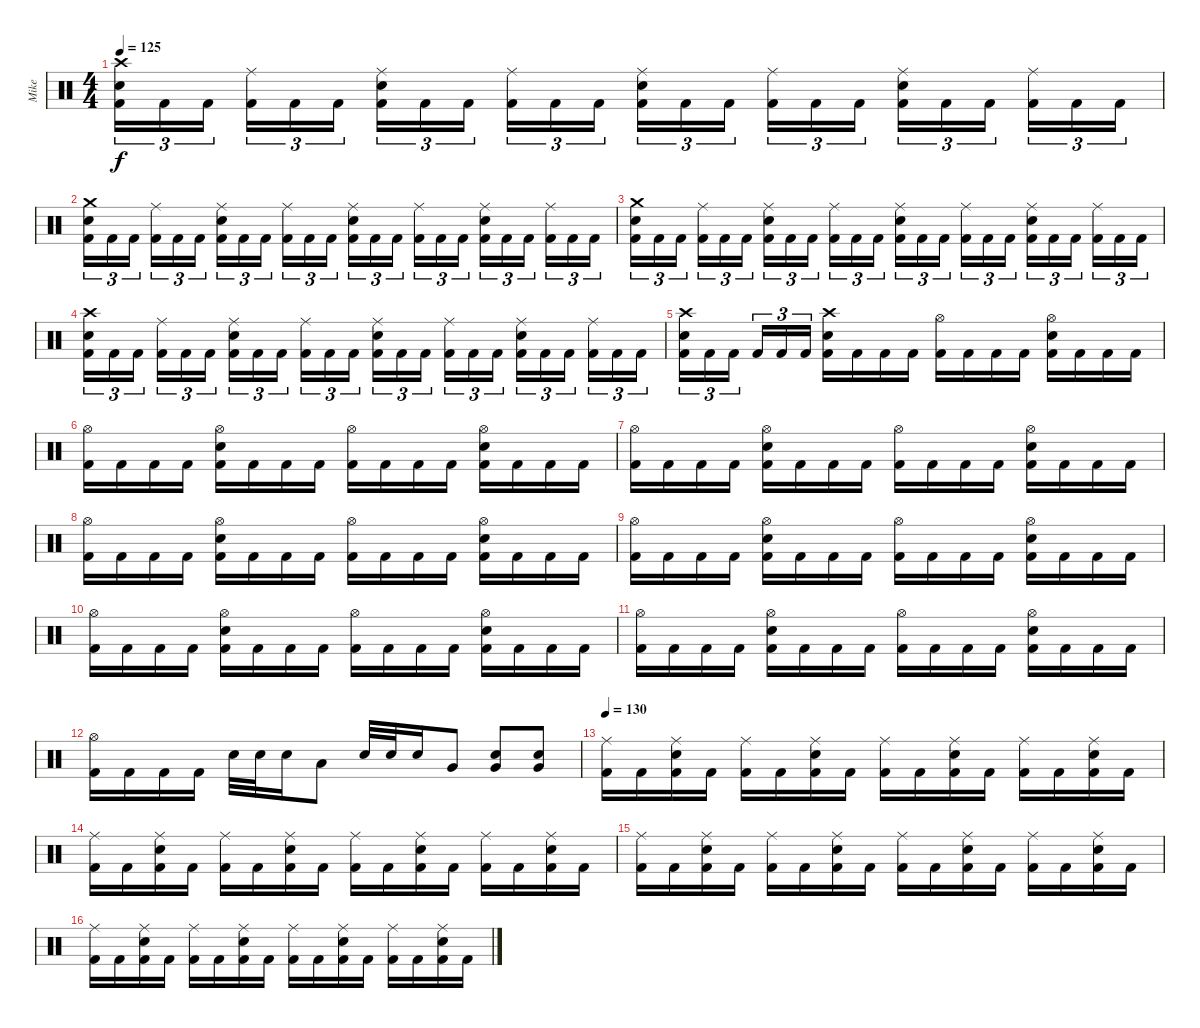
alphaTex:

\track ("Mike" "Mike") {instrument percussion}
\staff {score}
\articulation defaults
\ts (4 4)
\tempo 125
\clef neutral
\ks c
("Kick (hit) 2" "Electric Snare (hit)" "Crash high (hit)").16{tu (3 2) dy f} "Kick (hit) 2".16{tu (3 2)} "Kick (hit) 2".16{tu (3 2) beam splitsecondary} ("Kick (hit) 2" "Ride (middle)").16{tu (3 2)} "Kick (hit) 2".16{tu (3 2)} "Kick (hit) 2".16{tu (3 2)} ("Kick (hit) 2" "Electric Snare (hit)" "Ride (middle)").16{tu (3 2)} "Kick (hit) 2".16{tu (3 2)} "Kick (hit) 2".16{tu (3 2) beam splitsecondary} ("Kick (hit) 2" "Ride (middle)").16{tu (3 2)} "Kick (hit) 2".16{tu (3 2)} "Kick (hit) 2".16{tu (3 2)} ("Kick (hit) 2" "Electric Snare (hit)" "Ride (middle)").16{tu (3 2)} "Kick (hit) 2".16{tu (3 2)} "Kick (hit) 2".16{tu (3 2) beam splitsecondary} ("Kick (hit) 2" "Ride (middle)").16{tu (3 2)} "Kick (hit) 2".16{tu (3 2)} "Kick (hit) 2".16{tu (3 2)} ("Kick (hit) 2" "Electric Snare (hit)" "Ride (middle)").16{tu (3 2)} "Kick (hit) 2".16{tu (3 2)} "Kick (hit) 2".16{tu (3 2) beam splitsecondary} ("Kick (hit) 2" "Ride (middle)").16{tu (3 2)} "Kick (hit) 2".16{tu (3 2)} "Kick (hit) 2".16{tu (3 2)} |
("Kick (hit) 2" "Electric Snare (hit)" "Crash medium (hit)").16{tu (3 2)} "Kick (hit) 2".16{tu (3 2)} "Kick (hit) 2".16{tu (3 2) beam splitsecondary} ("Kick (hit) 2" "Ride (middle)").16{tu (3 2)} "Kick (hit) 2".16{tu (3 2)} "Kick (hit) 2".16{tu (3 2)} ("Kick (hit) 2" "Electric Snare (hit)" "Ride (middle)").16{tu (3 2)} "Kick (hit) 2".16{tu (3 2)} "Kick (hit) 2".16{tu (3 2) beam splitsecondary} ("Kick (hit) 2" "Ride (middle)").16{tu (3 2)} "Kick (hit) 2".16{tu (3 2)} "Kick (hit) 2".16{tu (3 2)} ("Kick (hit) 2" "Electric Snare (hit)" "Ride (middle)").16{tu (3 2)} "Kick (hit) 2".16{tu (3 2)} "Kick (hit) 2".16{tu (3 2) beam splitsecondary} ("Kick (hit) 2" "Ride (middle)").16{tu (3 2)} "Kick (hit) 2".16{tu (3 2)} "Kick (hit) 2".16{tu (3 2)} ("Kick (hit) 2" "Electric Snare (hit)" "Ride (middle)").16{tu (3 2)} "Kick (hit) 2".16{tu (3 2)} "Kick (hit) 2".16{tu (3 2) beam splitsecondary} ("Kick (hit) 2" "Ride (middle)").16{tu (3 2)} "Kick (hit) 2".16{tu (3 2)} "Kick (hit) 2".16{tu (3 2)} |
("Kick (hit) 2" "Electric Snare (hit)" "Crash medium (hit)").16{tu (3 2)} "Kick (hit) 2".16{tu (3 2)} "Kick (hit) 2".16{tu (3 2) beam splitsecondary} ("Kick (hit) 2" "Ride (middle)").16{tu (3 2)} "Kick (hit) 2".16{tu (3 2)} "Kick (hit) 2".16{tu (3 2)} ("Kick (hit) 2" "Electric Snare (hit)" "Ride (middle)").16{tu (3 2)} "Kick (hit) 2".16{tu (3 2)} "Kick (hit) 2".16{tu (3 2) beam splitsecondary} ("Kick (hit) 2" "Ride (middle)").16{tu (3 2)} "Kick (hit) 2".16{tu (3 2)} "Kick (hit) 2".16{tu (3 2)} ("Kick (hit) 2" "Electric Snare (hit)" "Ride (middle)").16{tu (3 2)} "Kick (hit) 2".16{tu (3 2)} "Kick (hit) 2".16{tu (3 2) beam splitsecondary} ("Kick (hit) 2" "Ride (middle)").16{tu (3 2)} "Kick (hit) 2".16{tu (3 2)} "Kick (hit) 2".16{tu (3 2)} ("Kick (hit) 2" "Electric Snare (hit)" "Ride (middle)").16{tu (3 2)} "Kick (hit) 2".16{tu (3 2)} "Kick (hit) 2".16{tu (3 2) beam splitsecondary} ("Kick (hit) 2" "Ride (middle)").16{tu (3 2)} "Kick (hit) 2".16{tu (3 2)} "Kick (hit) 2".16{tu (3 2)} |
("Kick (hit) 2" "Electric Snare (hit)" "Crash high (hit)").16{tu (3 2)} "Kick (hit) 2".16{tu (3 2)} "Kick (hit) 2".16{tu (3 2) beam splitsecondary} ("Kick (hit) 2" "Ride (middle)").16{tu (3 2)} "Kick (hit) 2".16{tu (3 2)} "Kick (hit) 2".16{tu (3 2)} ("Kick (hit) 2" "Electric Snare (hit)" "Ride (middle)").16{tu (3 2)} "Kick (hit) 2".16{tu (3 2)} "Kick (hit) 2".16{tu (3 2) beam splitsecondary} ("Kick (hit) 2" "Ride (middle)").16{tu (3 2)} "Kick (hit) 2".16{tu (3 2)} "Kick (hit) 2".16{tu (3 2)} ("Kick (hit) 2" "Electric Snare (hit)" "Ride (middle)").16{tu (3 2)} "Kick (hit) 2".16{tu (3 2)} "Kick (hit) 2".16{tu (3 2) beam splitsecondary} ("Kick (hit) 2" "Ride (middle)").16{tu (3 2)} "Kick (hit) 2".16{tu (3 2)} "Kick (hit) 2".16{tu (3 2)} ("Kick (hit) 2" "Electric Snare (hit)" "Ride (middle)").16{tu (3 2)} "Kick (hit) 2".16{tu (3 2)} "Kick (hit) 2".16{tu (3 2) beam splitsecondary} ("Kick (hit) 2" "Ride (middle)").16{tu (3 2)} "Kick (hit) 2".16{tu (3 2)} "Kick (hit) 2".16{tu (3 2)} |
("Kick (hit) 2" "Electric Snare (hit)" "Crash high (hit)").16{tu (3 2)} "Kick (hit) 2".16{tu (3 2)} "Kick (hit) 2".16{tu (3 2) beam splitsecondary} "Kick (hit) 2".16{tu (3 2)} "Kick (hit) 2".16{tu (3 2)} "Kick (hit) 2".16{tu (3 2)} ("Kick (hit) 2" "Electric Snare (hit)" "Crash high (hit)").16 "Kick (hit) 2".16 "Kick (hit) 2".16 "Kick (hit) 2".16 ("Kick (hit) 2" "Hi-Hat (open)").16 "Kick (hit) 2".16 "Kick (hit) 2".16 "Kick (hit) 2".16 ("Kick (hit) 2" "Electric Snare (hit)" "Hi-Hat (open)").16 "Kick (hit) 2".16 "Kick (hit) 2".16 "Kick (hit) 2".16 |
("Kick (hit) 2" "Hi-Hat (open)").16 "Kick (hit) 2".16 "Kick (hit) 2".16 "Kick (hit) 2".16 ("Kick (hit) 2" "Electric Snare (hit)" "Hi-Hat (open)").16 "Kick (hit) 2".16 "Kick (hit) 2".16 "Kick (hit) 2".16 ("Kick (hit) 2" "Hi-Hat (open)").16 "Kick (hit) 2".16 "Kick (hit) 2".16 "Kick (hit) 2".16 ("Kick (hit) 2" "Electric Snare (hit)" "Hi-Hat (open)").16 "Kick (hit) 2".16 "Kick (hit) 2".16 "Kick (hit) 2".16 |
("Kick (hit) 2" "Hi-Hat (open)").16 "Kick (hit) 2".16 "Kick (hit) 2".16 "Kick (hit) 2".16 ("Kick (hit) 2" "Electric Snare (hit)" "Hi-Hat (open)").16 "Kick (hit) 2".16 "Kick (hit) 2".16 "Kick (hit) 2".16 ("Kick (hit) 2" "Hi-Hat (open)").16 "Kick (hit) 2".16 "Kick (hit) 2".16 "Kick (hit) 2".16 ("Kick (hit) 2" "Electric Snare (hit)" "Hi-Hat (open)").16 "Kick (hit) 2".16 "Kick (hit) 2".16 "Kick (hit) 2".16 |
("Kick (hit) 2" "Hi-Hat (open)").16 "Kick (hit) 2".16 "Kick (hit) 2".16 "Kick (hit) 2".16 ("Kick (hit) 2" "Electric Snare (hit)" "Hi-Hat (open)").16 "Kick (hit) 2".16 "Kick (hit) 2".16 "Kick (hit) 2".16 ("Kick (hit) 2" "Hi-Hat (open)").16 "Kick (hit) 2".16 "Kick (hit) 2".16 "Kick (hit) 2".16 ("Kick (hit) 2" "Electric Snare (hit)" "Hi-Hat (open)").16 "Kick (hit) 2".16 "Kick (hit) 2".16 "Kick (hit) 2".16 |
("Kick (hit) 2" "Hi-Hat (open)").16 "Kick (hit) 2".16 "Kick (hit) 2".16 "Kick (hit) 2".16 ("Kick (hit) 2" "Electric Snare (hit)" "Hi-Hat (open)").16 "Kick (hit) 2".16 "Kick (hit) 2".16 "Kick (hit) 2".16 ("Kick (hit) 2" "Hi-Hat (open)").16 "Kick (hit) 2".16 "Kick (hit) 2".16 "Kick (hit) 2".16 ("Kick (hit) 2" "Electric Snare (hit)" "Hi-Hat (open)").16 "Kick (hit) 2".16 "Kick (hit) 2".16 "Kick (hit) 2".16 |
("Kick (hit) 2" "Hi-Hat (open)").16 "Kick (hit) 2".16 "Kick (hit) 2".16 "Kick (hit) 2".16 ("Kick (hit) 2" "Electric Snare (hit)" "Hi-Hat (open)").16 "Kick (hit) 2".16 "Kick (hit) 2".16 "Kick (hit) 2".16 ("Kick (hit) 2" "Hi-Hat (open)").16 "Kick (hit) 2".16 "Kick (hit) 2".16 "Kick (hit) 2".16 ("Kick (hit) 2" "Electric Snare (hit)" "Hi-Hat (open)").16 "Kick (hit) 2".16 "Kick (hit) 2".16 "Kick (hit) 2".16 |
("Kick (hit) 2" "Hi-Hat (open)").16 "Kick (hit) 2".16 "Kick (hit) 2".16 "Kick (hit) 2".16 ("Kick (hit) 2" "Electric Snare (hit)" "Hi-Hat (open)").16 "Kick (hit) 2".16 "Kick (hit) 2".16 "Kick (hit) 2".16 ("Kick (hit) 2" "Hi-Hat (open)").16 "Kick (hit) 2".16 "Kick (hit) 2".16 "Kick (hit) 2".16 ("Kick (hit) 2" "Electric Snare (hit)" "Hi-Hat (open)").16 "Kick (hit) 2".16 "Kick (hit) 2".16 "Kick (hit) 2".16 |
("Kick (hit) 2" "Hi-Hat (open)").16 "Kick (hit) 2".16 "Kick (hit) 2".16 "Kick (hit) 2".16 "Electric Snare (hit)".32 "Electric Snare (hit)".32 "Electric Snare (hit)".16 "Low Tom (hit)".8 "Electric Snare (hit)".32 "Electric Snare (hit)".32 "Electric Snare (hit)".16 "Very Low Tom (hit)".8 ("Electric Snare (hit)" "Very Low Tom (hit)").8 ("Electric Snare (hit)" "Very Low Tom (hit)").8 |
\tempo 130
("Kick (hit) 2" "Ride (middle)").16 "Kick (hit) 2".16 ("Kick (hit) 2" "Electric Snare (hit)" "Ride (middle)").16 "Kick (hit) 2".16 ("Kick (hit) 2" "Ride (middle)").16 "Kick (hit) 2".16 ("Kick (hit) 2" "Electric Snare (hit)" "Ride (middle)").16 "Kick (hit) 2".16 ("Kick (hit) 2" "Ride (middle)").16 "Kick (hit) 2".16 ("Kick (hit) 2" "Electric Snare (hit)" "Ride (middle)").16 "Kick (hit) 2".16 ("Kick (hit) 2" "Ride (middle)").16 "Kick (hit) 2".16 ("Kick (hit) 2" "Electric Snare (hit)" "Ride (middle)").16 "Kick (hit) 2".16 |
("Kick (hit) 2" "Ride (middle)").16 "Kick (hit) 2".16 ("Kick (hit) 2" "Electric Snare (hit)" "Ride (middle)").16 "Kick (hit) 2".16 ("Kick (hit) 2" "Ride (middle)").16 "Kick (hit) 2".16 ("Kick (hit) 2" "Electric Snare (hit)" "Ride (middle)").16 "Kick (hit) 2".16 ("Kick (hit) 2" "Ride (middle)").16 "Kick (hit) 2".16 ("Kick (hit) 2" "Electric Snare (hit)" "Ride (middle)").16 "Kick (hit) 2".16 ("Kick (hit) 2" "Ride (middle)").16 "Kick (hit) 2".16 ("Kick (hit) 2" "Electric Snare (hit)" "Ride (middle)").16 "Kick (hit) 2".16 |
("Kick (hit) 2" "Ride (middle)").16 "Kick (hit) 2".16 ("Kick (hit) 2" "Electric Snare (hit)" "Ride (middle)").16 "Kick (hit) 2".16 ("Kick (hit) 2" "Ride (middle)").16 "Kick (hit) 2".16 ("Kick (hit) 2" "Electric Snare (hit)" "Ride (middle)").16 "Kick (hit) 2".16 ("Kick (hit) 2" "Ride (middle)").16 "Kick (hit) 2".16 ("Kick (hit) 2" "Electric Snare (hit)" "Ride (middle)").16 "Kick (hit) 2".16 ("Kick (hit) 2" "Ride (middle)").16 "Kick (hit) 2".16 ("Kick (hit) 2" "Electric Snare (hit)" "Ride (middle)").16 "Kick (hit) 2".16 |
("Kick (hit) 2" "Ride (middle)").16 "Kick (hit) 2".16 ("Kick (hit) 2" "Electric Snare (hit)" "Ride (middle)").16 "Kick (hit) 2".16 ("Kick (hit) 2" "Ride (middle)").16 "Kick (hit) 2".16 ("Kick (hit) 2" "Electric Snare (hit)" "Ride (middle)").16 "Kick (hit) 2".16 ("Kick (hit) 2" "Ride (middle)").16 "Kick (hit) 2".16 ("Kick (hit) 2" "Electric Snare (hit)" "Ride (middle)").16 "Kick (hit) 2".16 ("Kick (hit) 2" "Ride (middle)").16 "Kick (hit) 2".16 ("Kick (hit) 2" "Electric Snare (hit)" "Ride (middle)").16 "Kick (hit) 2".16
